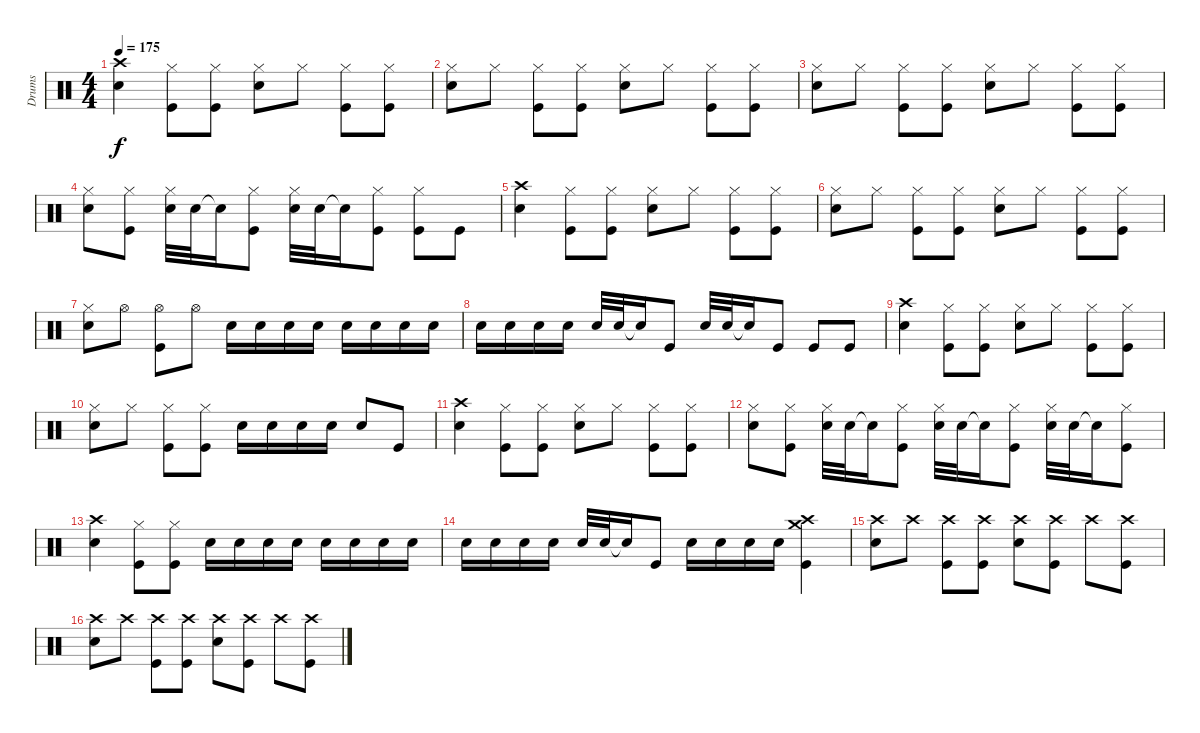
\track ("Drums" "Drums") {instrument percussion}
\staff {score}
\articulation defaults
\ts (4 4)
\tempo 175
\clef neutral
\ks c
("Crash high (hit)" "Snare (hit) 2").4{dy f} ("Hi-Hat (closed)" "Kick (hit)").8 ("Hi-Hat (closed)" "Kick (hit)").8 ("Hi-Hat (closed)" "Snare (hit) 2").8 "Hi-Hat (closed)".8 ("Hi-Hat (closed)" "Kick (hit)").8 ("Hi-Hat (closed)" "Kick (hit)").8 |
("Hi-Hat (closed)" "Snare (hit) 2").8 "Hi-Hat (closed)".8 ("Hi-Hat (closed)" "Kick (hit)").8 ("Hi-Hat (closed)" "Kick (hit)").8 ("Hi-Hat (closed)" "Snare (hit) 2").8 "Hi-Hat (closed)".8 ("Hi-Hat (closed)" "Kick (hit)").8 ("Hi-Hat (closed)" "Kick (hit)").8 |
("Hi-Hat (closed)" "Snare (hit) 2").8 "Hi-Hat (closed)".8 ("Hi-Hat (closed)" "Kick (hit)").8 ("Hi-Hat (closed)" "Kick (hit)").8 ("Hi-Hat (closed)" "Snare (hit) 2").8 "Hi-Hat (closed)".8 ("Hi-Hat (closed)" "Kick (hit)").8 ("Hi-Hat (closed)" "Kick (hit)").8 |
("Hi-Hat (closed)" "Snare (hit) 2").8 ("Hi-Hat (closed)" "Kick (hit)").8 ("Hi-Hat (closed)" "Snare (hit) 2").32 "Snare (hit) 2".32 "Snare (hit)"{t}.16 ("Hi-Hat (closed)" "Kick (hit)").8 ("Hi-Hat (closed)" "Snare (hit) 2").32 "Snare (hit) 2".32 "Snare (hit)"{t}.16 ("Hi-Hat (closed)" "Kick (hit)").8 ("Hi-Hat (closed)" "Kick (hit)").8 "Kick (hit)".8 |
("Crash high (hit)" "Snare (hit) 2").4 ("Hi-Hat (closed)" "Kick (hit)").8 ("Hi-Hat (closed)" "Kick (hit)").8 ("Hi-Hat (closed)" "Snare (hit) 2").8 "Hi-Hat (closed)".8 ("Hi-Hat (closed)" "Kick (hit)").8 ("Hi-Hat (closed)" "Kick (hit)").8 |
("Hi-Hat (closed)" "Snare (hit) 2").8 "Hi-Hat (closed)".8 ("Hi-Hat (closed)" "Kick (hit)").8 ("Hi-Hat (closed)" "Kick (hit)").8 ("Hi-Hat (closed)" "Snare (hit) 2").8 "Hi-Hat (closed)".8 ("Hi-Hat (closed)" "Kick (hit)").8 ("Hi-Hat (closed)" "Kick (hit)").8 |
("Hi-Hat (closed)" "Snare (hit) 2").8 "Hi-Hat (open)".8 ("Hi-Hat (open)" "Kick (hit)").8 "Hi-Hat (open)".8 "Snare (hit) 2".16 "Snare (hit) 2".16 "Snare (hit) 2".16 "Snare (hit) 2".16 "Snare (hit) 2".16 "Snare (hit) 2".16 "Snare (hit) 2".16 "Snare (hit) 2".16 |
"Snare (hit) 2".16 "Snare (hit) 2".16 "Snare (hit) 2".16 "Snare (hit) 2".16 "Snare (hit) 2".32 "Snare (hit) 2".32 "Snare (hit)"{t}.16 "Kick (hit)".8 "Snare (hit) 2".32 "Snare (hit) 2".32 "Snare (hit)"{t}.16 "Kick (hit)".8 "Kick (hit)".8 "Kick (hit)".8 |
("Crash high (hit)" "Snare (hit) 2").4 ("Hi-Hat (closed)" "Kick (hit)").8 ("Hi-Hat (closed)" "Kick (hit)").8 ("Hi-Hat (closed)" "Snare (hit) 2").8 "Hi-Hat (closed)".8 ("Hi-Hat (closed)" "Kick (hit)").8 ("Hi-Hat (closed)" "Kick (hit)").8 |
("Hi-Hat (closed)" "Snare (hit) 2").8 "Hi-Hat (closed)".8 ("Hi-Hat (closed)" "Kick (hit)").8 ("Hi-Hat (closed)" "Kick (hit)").8 "Snare (hit) 2".16 "Snare (hit) 2".16 "Snare (hit) 2".16 "Snare (hit) 2".16 "Snare (hit) 2".8 "Kick (hit)".8 |
("Crash high (hit)" "Snare (hit) 2").4 ("Hi-Hat (closed)" "Kick (hit)").8 ("Hi-Hat (closed)" "Kick (hit)").8 ("Hi-Hat (closed)" "Snare (hit) 2").8 "Hi-Hat (closed)".8 ("Hi-Hat (closed)" "Kick (hit)").8 ("Hi-Hat (closed)" "Kick (hit)").8 |
("Hi-Hat (closed)" "Snare (hit) 2").8 ("Hi-Hat (closed)" "Kick (hit)").8 ("Hi-Hat (closed)" "Snare (hit) 2").32 "Snare (hit) 2".32 "Snare (hit)"{t}.16 ("Hi-Hat (closed)" "Kick (hit)").8 ("Hi-Hat (closed)" "Snare (hit) 2").32 "Snare (hit) 2".32 "Snare (hit)"{t}.16 ("Hi-Hat (closed)" "Kick (hit)").8 ("Hi-Hat (closed)" "Snare (hit) 2").32 "Snare (hit) 2".32 "Snare (hit)"{t}.16 ("Hi-Hat (closed)" "Kick (hit)").8 |
("Crash high (hit)" "Snare (hit) 2").4 ("Hi-Hat (closed)" "Kick (hit)").8 ("Hi-Hat (closed)" "Kick (hit)").8 "Snare (hit) 2".16 "Snare (hit) 2".16 "Snare (hit) 2".16 "Snare (hit) 2".16 "Snare (hit) 2".16 "Snare (hit) 2".16 "Snare (hit) 2".16 "Snare (hit) 2".16 |
"Snare (hit) 2".16 "Snare (hit) 2".16 "Snare (hit) 2".16 "Snare (hit) 2".16 "Snare (hit) 2".32 "Snare (hit) 2".32 "Snare (hit)"{t}.16 "Kick (hit)".8 "Snare (hit) 2".16 "Snare (hit) 2".16 "Snare (hit) 2".16 "Snare (hit) 2".16 ("Crash medium (hit)" "Crash high (hit)" "Kick (hit)").4 |
("Crash high (hit)" "Snare (hit) 2").8 "Crash high (hit)".8 ("Crash high (hit)" "Kick (hit)").8 ("Crash high (hit)" "Kick (hit)").8 ("Crash high (hit)" "Snare (hit) 2").8 ("Crash high (hit)" "Kick (hit)").8 "Crash high (hit)".8 ("Crash high (hit)" "Kick (hit)").8 |
("Crash high (hit)" "Snare (hit) 2").8 "Crash high (hit)".8 ("Crash high (hit)" "Kick (hit)").8 ("Crash high (hit)" "Kick (hit)").8 ("Crash high (hit)" "Snare (hit) 2").8 ("Crash high (hit)" "Kick (hit)").8 "Crash high (hit)".8 ("Crash high (hit)" "Kick (hit)").8
